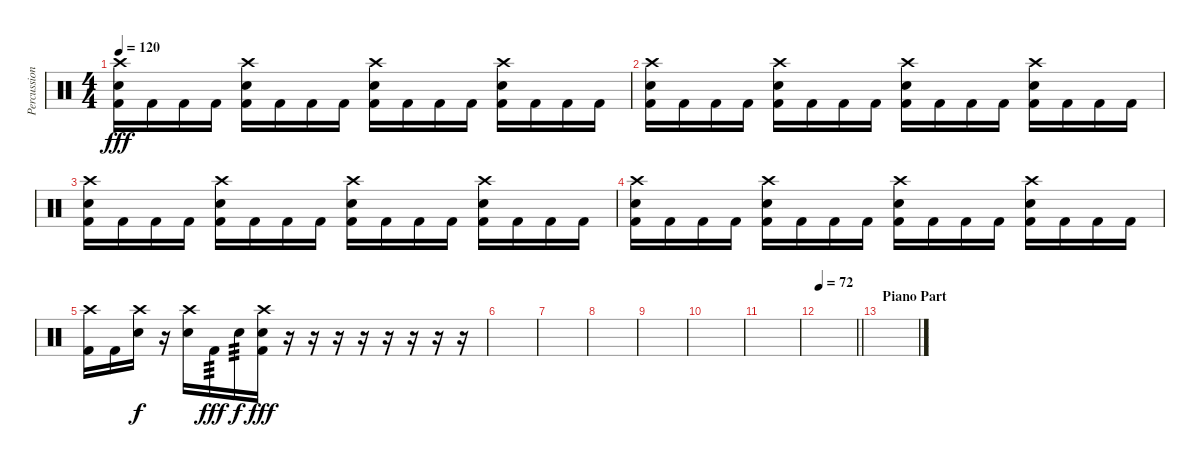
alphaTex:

\track ("Percussion" "Percussion") {instrument percussion}
\staff {score}
\articulation defaults
\ts (4 4)
\tempo 120
\clef neutral
\ks c
("Crash high (hit)" "Electric Snare (hit)" "Kick (hit) 2").16{dy fff} "Kick (hit) 2".16 "Kick (hit) 2".16 "Kick (hit) 2".16 ("Crash high (hit)" "Electric Snare (hit)" "Kick (hit) 2").16 "Kick (hit) 2".16 "Kick (hit) 2".16 "Kick (hit) 2".16 ("Crash high (hit)" "Electric Snare (hit)" "Kick (hit) 2").16 "Kick (hit) 2".16 "Kick (hit) 2".16 "Kick (hit) 2".16 ("Crash high (hit)" "Electric Snare (hit)" "Kick (hit) 2").16 "Kick (hit) 2".16 "Kick (hit) 2".16 "Kick (hit) 2".16 |
("Crash high (hit)" "Electric Snare (hit)" "Kick (hit) 2").16 "Kick (hit) 2".16 "Kick (hit) 2".16 "Kick (hit) 2".16 ("Crash high (hit)" "Electric Snare (hit)" "Kick (hit) 2").16 "Kick (hit) 2".16 "Kick (hit) 2".16 "Kick (hit) 2".16 ("Crash high (hit)" "Electric Snare (hit)" "Kick (hit) 2").16 "Kick (hit) 2".16 "Kick (hit) 2".16 "Kick (hit) 2".16 ("Crash high (hit)" "Electric Snare (hit)" "Kick (hit) 2").16 "Kick (hit) 2".16 "Kick (hit) 2".16 "Kick (hit) 2".16 |
("Crash high (hit)" "Electric Snare (hit)" "Kick (hit) 2").16 "Kick (hit) 2".16 "Kick (hit) 2".16 "Kick (hit) 2".16 ("Crash high (hit)" "Electric Snare (hit)" "Kick (hit) 2").16 "Kick (hit) 2".16 "Kick (hit) 2".16 "Kick (hit) 2".16 ("Crash high (hit)" "Electric Snare (hit)" "Kick (hit) 2").16 "Kick (hit) 2".16 "Kick (hit) 2".16 "Kick (hit) 2".16 ("Crash high (hit)" "Electric Snare (hit)" "Kick (hit) 2").16 "Kick (hit) 2".16 "Kick (hit) 2".16 "Kick (hit) 2".16 |
("Crash high (hit)" "Electric Snare (hit)" "Kick (hit) 2").16 "Kick (hit) 2".16 "Kick (hit) 2".16 "Kick (hit) 2".16 ("Crash high (hit)" "Electric Snare (hit)" "Kick (hit) 2").16 "Kick (hit) 2".16 "Kick (hit) 2".16 "Kick (hit) 2".16 ("Crash high (hit)" "Electric Snare (hit)" "Kick (hit) 2").16 "Kick (hit) 2".16 "Kick (hit) 2".16 "Kick (hit) 2".16 ("Crash high (hit)" "Electric Snare (hit)" "Kick (hit) 2").16 "Kick (hit) 2".16 "Kick (hit) 2".16 "Kick (hit) 2".16 |
("Crash high (hit)" "Kick (hit) 2").16 "Kick (hit) 2".16 ("Crash high (hit)" "Electric Snare (hit)").16{dy f} r.16 ("Crash high (hit)" "Electric Snare (hit)").16 "Kick (hit) 2".16{tp 3 dy fff} "Electric Snare (hit)".16{tp 3 dy f} ("Crash high (hit)" "Electric Snare (hit)" "Kick (hit) 2").16{dy fff} r.16 r.16 r.16 r.16 r.16 r.16 r.16 r.16 |
|
|
|
|
|
|
\tempo 72
\barLineRight lightlight
|
\section ("" "Piano Part")
